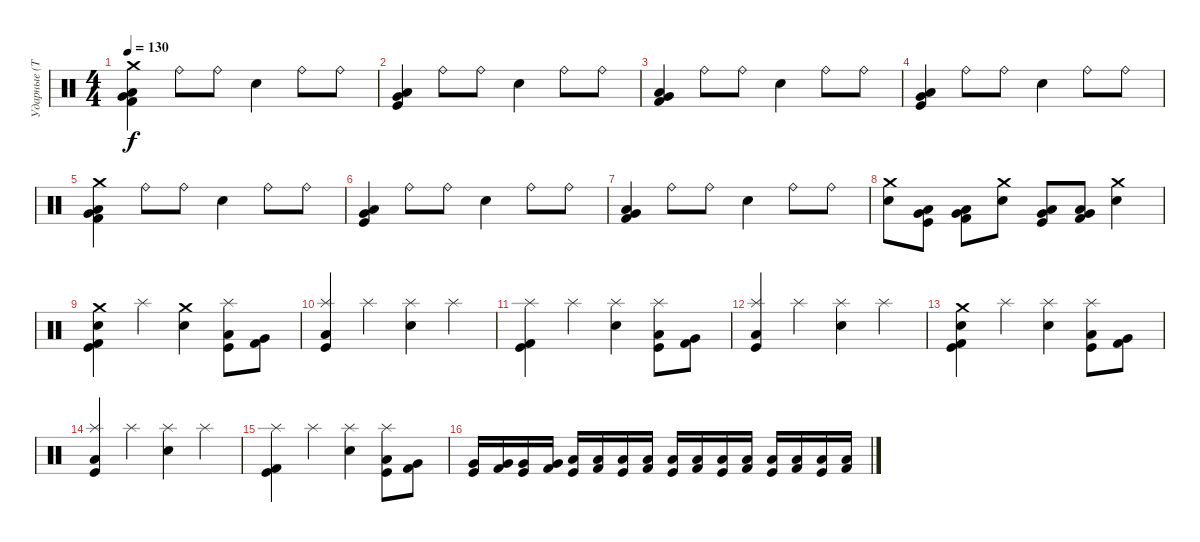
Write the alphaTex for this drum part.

\track ("Ударные (Тьодальв)" "Ударные (Т") {instrument percussion}
\staff {score}
\articulation defaults
\ts (4 4)
\tempo 130
\clef neutral
\ks c
("Crash medium (hit)" "Low Floor Tom (hit)" "Very Low Tom (hit)" "Kick (hit) 2").4{dy f} "Ride (bell)".8 "Ride (bell)".8 "Snare (hit) 2".4 "Ride (bell)".8 "Ride (bell)".8 |
("Low Floor Tom (hit)" "Very Low Tom (hit)" "Kick (hit)").4 "Ride (bell)".8 "Ride (bell)".8 "Snare (hit) 2".4 "Ride (bell)".8 "Ride (bell)".8 |
("Low Floor Tom (hit)" "Very Low Tom (hit)" "Kick (hit) 2").4 "Ride (bell)".8 "Ride (bell)".8 "Snare (hit) 2".4 "Ride (bell)".8 "Ride (bell)".8 |
("Low Floor Tom (hit)" "Very Low Tom (hit)" "Kick (hit)").4 "Ride (bell)".8 "Ride (bell)".8 "Snare (hit) 2".4 "Ride (bell)".8 "Ride (bell)".8 |
("Crash medium (hit)" "Low Floor Tom (hit)" "Very Low Tom (hit)" "Kick (hit) 2").4 "Ride (bell)".8 "Ride (bell)".8 "Snare (hit) 2".4 "Ride (bell)".8 "Ride (bell)".8 |
("Low Floor Tom (hit)" "Very Low Tom (hit)" "Kick (hit)").4 "Ride (bell)".8 "Ride (bell)".8 "Snare (hit) 2".4 "Ride (bell)".8 "Ride (bell)".8 |
("Low Floor Tom (hit)" "Very Low Tom (hit)" "Kick (hit) 2").4 "Ride (bell)".8 "Ride (bell)".8 "Snare (hit) 2".4 "Ride (bell)".8 "Ride (bell)".8 |
("Crash medium (hit)" "Snare (hit) 2").8 ("Low Floor Tom (hit)" "Very Low Tom (hit)" "Kick (hit)").8 ("Low Floor Tom (hit)" "Very Low Tom (hit)" "Kick (hit) 2").8 ("Crash medium (hit)" "Snare (hit) 2").8 ("Low Floor Tom (hit)" "Very Low Tom (hit)" "Kick (hit)").8 ("Low Floor Tom (hit)" "Very Low Tom (hit)" "Kick (hit) 2").8 ("Crash medium (hit)" "Snare (hit) 2").4 |
("Crash medium (hit)" "Snare (hit) 2" "Kick (hit)" "Kick (hit) 2").4 "Splash (hit)".4 ("Crash medium (hit)" "Snare (hit) 2").4 ("Splash (hit)" "Kick (hit)" "Low Floor Tom (hit)").8 ("Kick (hit) 2" "Very Low Tom (hit)").8 |
("Splash (hit)" "Low Tom (hit)" "Kick (hit)").4 "Splash (hit)".4 ("Splash (hit)" "Snare (hit) 2").4 "Splash (hit)".4 |
("Splash (hit)" "Kick (hit)" "Kick (hit) 2").4 "Splash (hit)".4 ("Splash (hit)" "Snare (hit) 2").4 ("Splash (hit)" "Kick (hit)" "Low Floor Tom (hit)").8 ("Kick (hit) 2" "Very Low Tom (hit)").8 |
("Splash (hit)" "Kick (hit)" "Low Tom (hit)").4 "Splash (hit)".4 ("Splash (hit)" "Snare (hit) 2").4 "Splash (hit)".4 |
("Crash medium (hit)" "Snare (hit) 2" "Kick (hit)" "Kick (hit) 2").4 "Splash (hit)".4 ("Splash (hit)" "Snare (hit) 2").4 ("Splash (hit)" "Kick (hit)" "Low Floor Tom (hit)").8 ("Kick (hit) 2" "Very Low Tom (hit)").8 |
("Splash (hit)" "Low Tom (hit)" "Kick (hit)").4 "Splash (hit)".4 ("Splash (hit)" "Snare (hit) 2").4 "Splash (hit)".4 |
("Splash (hit)" "Kick (hit)" "Kick (hit) 2").4 "Splash (hit)".4 ("Splash (hit)" "Snare (hit) 2").4 ("Splash (hit)" "Kick (hit)" "Low Floor Tom (hit)").8 ("Kick (hit) 2" "Very Low Tom (hit)").8 |
("Very Low Tom (hit)" "Kick (hit)").16 ("Very Low Tom (hit)" "Kick (hit) 2").16 ("Very Low Tom (hit)" "Kick (hit)").16 ("Very Low Tom (hit)" "Kick (hit) 2").16 ("Low Floor Tom (hit)" "Kick (hit)").16 ("Low Floor Tom (hit)" "Kick (hit) 2").16 ("Low Floor Tom (hit)" "Kick (hit)").16 ("Low Floor Tom (hit)" "Kick (hit) 2").16 ("Low Tom (hit)" "Kick (hit)").16 ("Low Tom (hit)" "Kick (hit) 2").16 ("Low Tom (hit)" "Kick (hit)").16 ("Low Tom (hit)" "Kick (hit) 2").16 ("Low Floor Tom (hit)" "Kick (hit)").16 ("Low Floor Tom (hit)" "Kick (hit) 2").16 ("Low Floor Tom (hit)" "Kick (hit)").16 ("Low Floor Tom (hit)" "Kick (hit) 2").16
